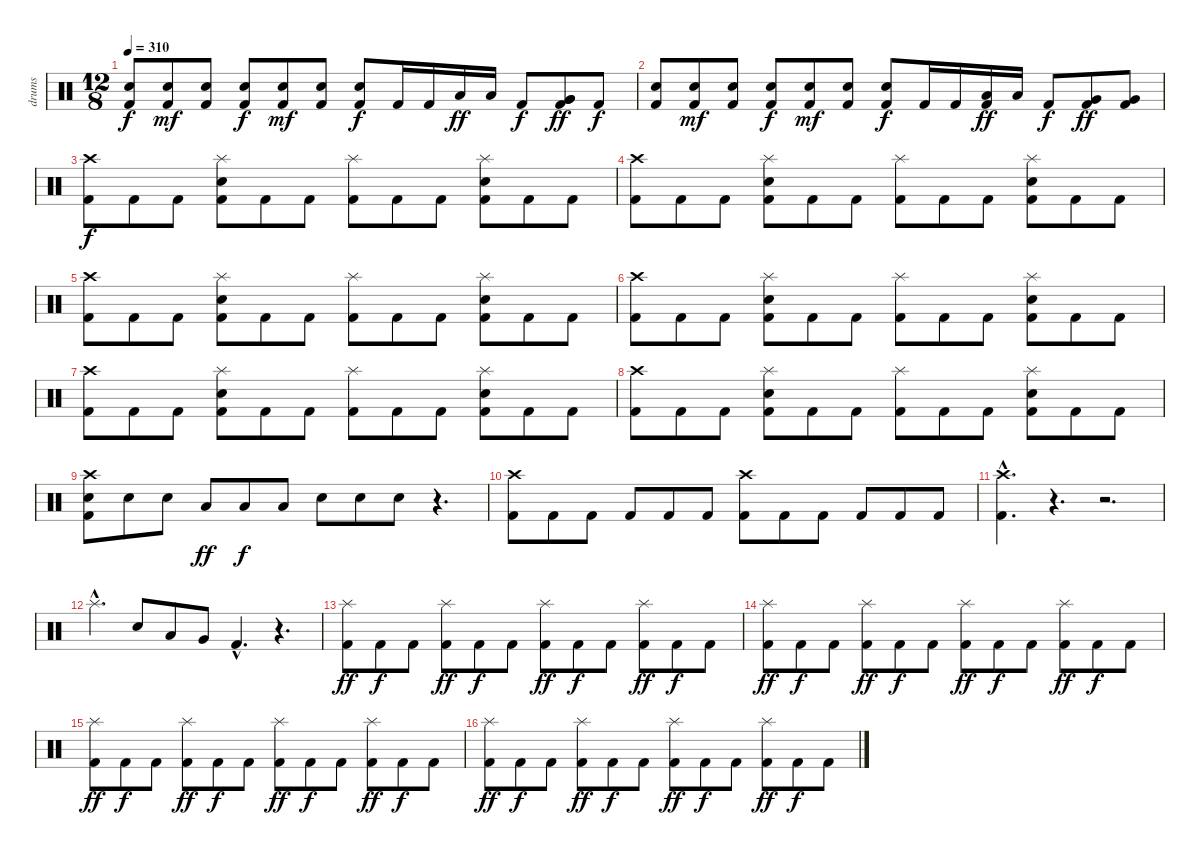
\track ("drums" "drums") {instrument percussion}
\staff {score}
\articulation defaults
\ts (12 8)
\tempo 310
\clef neutral
\ks c
("Snare (hit) 2" "Kick (hit) 2").8{dy f} ("Snare (hit) 2" "Kick (hit) 2").8{dy mf} ("Snare (hit) 2" "Kick (hit) 2").8 ("Snare (hit) 2" "Kick (hit) 2").8{dy f} ("Snare (hit) 2" "Kick (hit) 2").8{dy mf} ("Snare (hit) 2" "Kick (hit) 2").8 ("Snare (hit) 2" "Kick (hit) 2").8{dy f} "Kick (hit) 2".16 "Kick (hit) 2".16 "Low Tom (hit)".16{dy ff} "Low Tom (hit)".16 "Kick (hit) 2".8{dy f} ("Very Low Tom (hit)" "Kick (hit) 2" "Very Low Tom (hit)").8{dy ff} "Kick (hit) 2".8{dy f} |
("Snare (hit) 2" "Kick (hit) 2").8 ("Snare (hit) 2" "Kick (hit) 2").8{dy mf} ("Snare (hit) 2" "Kick (hit) 2").8 ("Snare (hit) 2" "Kick (hit) 2").8{dy f} ("Snare (hit) 2" "Kick (hit) 2").8{dy mf} ("Snare (hit) 2" "Kick (hit) 2").8 ("Snare (hit) 2" "Kick (hit) 2").8{dy f} "Kick (hit) 2".16 "Kick (hit) 2".16 ("Low Tom (hit)" "Kick (hit) 2").16{dy ff} "Low Tom (hit)".16 "Kick (hit) 2".8{dy f} ("Very Low Tom (hit)" "Kick (hit) 2").8{dy ff} ("Very Low Tom (hit)" "Kick (hit) 2").8 |
("Crash high (hit)" "Kick (hit) 2").8{dy f} "Kick (hit) 2".8 "Kick (hit) 2".8 ("Splash (hit)" "Snare (hit) 2" "Kick (hit) 2").8 "Kick (hit) 2".8 "Kick (hit) 2".8 ("Splash (hit)" "Kick (hit) 2").8 "Kick (hit) 2".8 "Kick (hit) 2".8 ("Splash (hit)" "Snare (hit) 2" "Kick (hit) 2").8 "Kick (hit) 2".8 "Kick (hit) 2".8 |
("Crash high (hit)" "Kick (hit) 2").8 "Kick (hit) 2".8 "Kick (hit) 2".8 ("Splash (hit)" "Snare (hit) 2" "Kick (hit) 2").8 "Kick (hit) 2".8 "Kick (hit) 2".8 ("Splash (hit)" "Kick (hit) 2").8 "Kick (hit) 2".8 "Kick (hit) 2".8 ("Splash (hit)" "Snare (hit) 2" "Kick (hit) 2").8 "Kick (hit) 2".8 "Kick (hit) 2".8 |
("Crash high (hit)" "Kick (hit) 2").8 "Kick (hit) 2".8 "Kick (hit) 2".8 ("Splash (hit)" "Snare (hit) 2" "Kick (hit) 2").8 "Kick (hit) 2".8 "Kick (hit) 2".8 ("Splash (hit)" "Kick (hit) 2").8 "Kick (hit) 2".8 "Kick (hit) 2".8 ("Splash (hit)" "Snare (hit) 2" "Kick (hit) 2").8 "Kick (hit) 2".8 "Kick (hit) 2".8 |
("Crash high (hit)" "Kick (hit) 2").8 "Kick (hit) 2".8 "Kick (hit) 2".8 ("Splash (hit)" "Snare (hit) 2" "Kick (hit) 2").8 "Kick (hit) 2".8 "Kick (hit) 2".8 ("Splash (hit)" "Kick (hit) 2").8 "Kick (hit) 2".8 "Kick (hit) 2".8 ("Splash (hit)" "Snare (hit) 2" "Kick (hit) 2").8 "Kick (hit) 2".8 "Kick (hit) 2".8 |
("Crash high (hit)" "Kick (hit) 2").8 "Kick (hit) 2".8 "Kick (hit) 2".8 ("Splash (hit)" "Snare (hit) 2" "Kick (hit) 2").8 "Kick (hit) 2".8 "Kick (hit) 2".8 ("Splash (hit)" "Kick (hit) 2").8 "Kick (hit) 2".8 "Kick (hit) 2".8 ("Splash (hit)" "Snare (hit) 2" "Kick (hit) 2").8 "Kick (hit) 2".8 "Kick (hit) 2".8 |
("Crash high (hit)" "Kick (hit) 2").8 "Kick (hit) 2".8 "Kick (hit) 2".8 ("Splash (hit)" "Snare (hit) 2" "Kick (hit) 2").8 "Kick (hit) 2".8 "Kick (hit) 2".8 ("Splash (hit)" "Kick (hit) 2").8 "Kick (hit) 2".8 "Kick (hit) 2".8 ("Splash (hit)" "Snare (hit) 2" "Kick (hit) 2").8 "Kick (hit) 2".8 "Kick (hit) 2".8 |
("Crash high (hit)" "Snare (hit) 2" "Kick (hit) 2").8 "Snare (hit) 2".8 "Snare (hit) 2".8 "Low Tom (hit)".8{dy ff} "Low Tom (hit)".8{dy f} "Low Tom (hit)".8 "Snare (hit) 2".8 "Snare (hit) 2".8 "Snare (hit) 2".8 r.4{d} |
("Crash high (hit)" "Kick (hit) 2").8 "Kick (hit) 2".8 "Kick (hit) 2".8 "Kick (hit) 2".8 "Kick (hit) 2".8 "Kick (hit) 2".8 ("Crash high (hit)" "Kick (hit) 2").8 "Kick (hit) 2".8 "Kick (hit) 2".8 "Kick (hit) 2".8 "Kick (hit) 2".8 "Kick (hit) 2".8 |
("Crash high (hit)"{hac} "Kick (hit) 2"{hac}).4{d} r.4{d} r.2{d} |
"Splash (hit)"{hac}.4{d} "Snare (hit) 2".8 "Low Tom (hit)".8 "Very Low Tom (hit)".8 "Kick (hit) 2"{hac}.4{d} r.4{d} |
("Splash (hit)" "Kick (hit) 2").8{dy ff} "Kick (hit) 2".8{dy f} "Kick (hit) 2".8 ("Splash (hit)" "Kick (hit) 2").8{dy ff} "Kick (hit) 2".8{dy f} "Kick (hit) 2".8 ("Splash (hit)" "Kick (hit) 2").8{dy ff} "Kick (hit) 2".8{dy f} "Kick (hit) 2".8 ("Splash (hit)" "Kick (hit) 2").8{dy ff} "Kick (hit) 2".8{dy f} "Kick (hit) 2".8 |
("Splash (hit)" "Kick (hit) 2").8{dy ff} "Kick (hit) 2".8{dy f} "Kick (hit) 2".8 ("Splash (hit)" "Kick (hit) 2").8{dy ff} "Kick (hit) 2".8{dy f} "Kick (hit) 2".8 ("Splash (hit)" "Kick (hit) 2").8{dy ff} "Kick (hit) 2".8{dy f} "Kick (hit) 2".8 ("Splash (hit)" "Kick (hit) 2").8{dy ff} "Kick (hit) 2".8{dy f} "Kick (hit) 2".8 |
("Splash (hit)" "Kick (hit) 2").8{dy ff} "Kick (hit) 2".8{dy f} "Kick (hit) 2".8 ("Splash (hit)" "Kick (hit) 2").8{dy ff} "Kick (hit) 2".8{dy f} "Kick (hit) 2".8 ("Splash (hit)" "Kick (hit) 2").8{dy ff} "Kick (hit) 2".8{dy f} "Kick (hit) 2".8 ("Splash (hit)" "Kick (hit) 2").8{dy ff} "Kick (hit) 2".8{dy f} "Kick (hit) 2".8 |
("Splash (hit)" "Kick (hit) 2").8{dy ff} "Kick (hit) 2".8{dy f} "Kick (hit) 2".8 ("Splash (hit)" "Kick (hit) 2").8{dy ff} "Kick (hit) 2".8{dy f} "Kick (hit) 2".8 ("Splash (hit)" "Kick (hit) 2").8{dy ff} "Kick (hit) 2".8{dy f} "Kick (hit) 2".8 ("Splash (hit)" "Kick (hit) 2").8{dy ff} "Kick (hit) 2".8{dy f} "Kick (hit) 2".8
